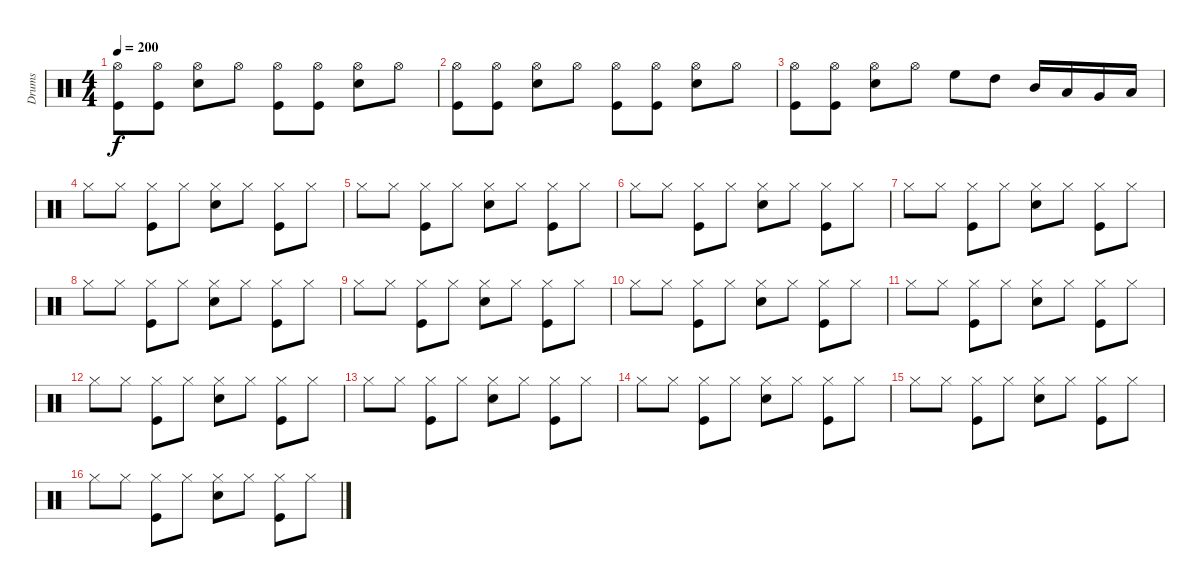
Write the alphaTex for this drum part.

\track ("Drums" "Drums") {instrument percussion}
\staff {score}
\articulation defaults
\ts (4 4)
\tempo 200
\clef neutral
\ks c
("Kick (hit)" "Hi-Hat (open)").8{dy f} ("Kick (hit)" "Hi-Hat (open)").8 ("Electric Snare (hit)" "Hi-Hat (open)").8 "Hi-Hat (open)".8 ("Kick (hit)" "Hi-Hat (open)").8 ("Kick (hit)" "Hi-Hat (open)").8 ("Electric Snare (hit)" "Hi-Hat (open)").8 "Hi-Hat (open)".8 |
("Kick (hit)" "Hi-Hat (open)").8 ("Kick (hit)" "Hi-Hat (open)").8 ("Electric Snare (hit)" "Hi-Hat (open)").8 "Hi-Hat (open)".8 ("Kick (hit)" "Hi-Hat (open)").8 ("Kick (hit)" "Hi-Hat (open)").8 ("Electric Snare (hit)" "Hi-Hat (open)").8 "Hi-Hat (open)".8 |
("Kick (hit)" "Hi-Hat (open)").8 ("Kick (hit)" "Hi-Hat (open)").8 ("Electric Snare (hit)" "Hi-Hat (open)").8 "Hi-Hat (open)".8 "High Floor Tom (hit)".8 "High Tom (hit)".8 "Mid Tom (hit)".16 "Low Tom (hit)".16 "Very Low Tom (hit)".16 "Low Floor Tom (hit)".16 |
"Hi-Hat (closed)".8 "Hi-Hat (closed)".8 ("Kick (hit)" "Hi-Hat (closed)").8 "Hi-Hat (closed)".8 ("Electric Snare (hit)" "Hi-Hat (closed)").8 "Hi-Hat (closed)".8 ("Hi-Hat (closed)" "Kick (hit)").8 "Hi-Hat (closed)".8 |
"Hi-Hat (closed)".8 "Hi-Hat (closed)".8 ("Kick (hit)" "Hi-Hat (closed)").8 "Hi-Hat (closed)".8 ("Electric Snare (hit)" "Hi-Hat (closed)").8 "Hi-Hat (closed)".8 ("Hi-Hat (closed)" "Kick (hit)").8 "Hi-Hat (closed)".8 |
"Hi-Hat (closed)".8 "Hi-Hat (closed)".8 ("Kick (hit)" "Hi-Hat (closed)").8 "Hi-Hat (closed)".8 ("Electric Snare (hit)" "Hi-Hat (closed)").8 "Hi-Hat (closed)".8 ("Hi-Hat (closed)" "Kick (hit)").8 "Hi-Hat (closed)".8 |
"Hi-Hat (closed)".8 "Hi-Hat (closed)".8 ("Kick (hit)" "Hi-Hat (closed)").8 "Hi-Hat (closed)".8 ("Electric Snare (hit)" "Hi-Hat (closed)").8 "Hi-Hat (closed)".8 ("Hi-Hat (closed)" "Kick (hit)").8 "Hi-Hat (closed)".8 |
"Hi-Hat (closed)".8 "Hi-Hat (closed)".8 ("Kick (hit)" "Hi-Hat (closed)").8 "Hi-Hat (closed)".8 ("Electric Snare (hit)" "Hi-Hat (closed)").8 "Hi-Hat (closed)".8 ("Hi-Hat (closed)" "Kick (hit)").8 "Hi-Hat (closed)".8 |
"Hi-Hat (closed)".8 "Hi-Hat (closed)".8 ("Kick (hit)" "Hi-Hat (closed)").8 "Hi-Hat (closed)".8 ("Electric Snare (hit)" "Hi-Hat (closed)").8 "Hi-Hat (closed)".8 ("Hi-Hat (closed)" "Kick (hit)").8 "Hi-Hat (closed)".8 |
"Hi-Hat (closed)".8 "Hi-Hat (closed)".8 ("Kick (hit)" "Hi-Hat (closed)").8 "Hi-Hat (closed)".8 ("Electric Snare (hit)" "Hi-Hat (closed)").8 "Hi-Hat (closed)".8 ("Hi-Hat (closed)" "Kick (hit)").8 "Hi-Hat (closed)".8 |
"Hi-Hat (closed)".8 "Hi-Hat (closed)".8 ("Kick (hit)" "Hi-Hat (closed)").8 "Hi-Hat (closed)".8 ("Electric Snare (hit)" "Hi-Hat (closed)").8 "Hi-Hat (closed)".8 ("Hi-Hat (closed)" "Kick (hit)").8 "Hi-Hat (closed)".8 |
"Hi-Hat (closed)".8 "Hi-Hat (closed)".8 ("Kick (hit)" "Hi-Hat (closed)").8 "Hi-Hat (closed)".8 ("Electric Snare (hit)" "Hi-Hat (closed)").8 "Hi-Hat (closed)".8 ("Hi-Hat (closed)" "Kick (hit)").8 "Hi-Hat (closed)".8 |
"Hi-Hat (closed)".8 "Hi-Hat (closed)".8 ("Kick (hit)" "Hi-Hat (closed)").8 "Hi-Hat (closed)".8 ("Electric Snare (hit)" "Hi-Hat (closed)").8 "Hi-Hat (closed)".8 ("Hi-Hat (closed)" "Kick (hit)").8 "Hi-Hat (closed)".8 |
"Hi-Hat (closed)".8 "Hi-Hat (closed)".8 ("Kick (hit)" "Hi-Hat (closed)").8 "Hi-Hat (closed)".8 ("Electric Snare (hit)" "Hi-Hat (closed)").8 "Hi-Hat (closed)".8 ("Hi-Hat (closed)" "Kick (hit)").8 "Hi-Hat (closed)".8 |
"Hi-Hat (closed)".8 "Hi-Hat (closed)".8 ("Kick (hit)" "Hi-Hat (closed)").8 "Hi-Hat (closed)".8 ("Electric Snare (hit)" "Hi-Hat (closed)").8 "Hi-Hat (closed)".8 ("Hi-Hat (closed)" "Kick (hit)").8 "Hi-Hat (closed)".8 |
"Hi-Hat (closed)".8 "Hi-Hat (closed)".8 ("Kick (hit)" "Hi-Hat (closed)").8 "Hi-Hat (closed)".8 ("Electric Snare (hit)" "Hi-Hat (closed)").8 "Hi-Hat (closed)".8 ("Hi-Hat (closed)" "Kick (hit)").8 "Hi-Hat (closed)".8
